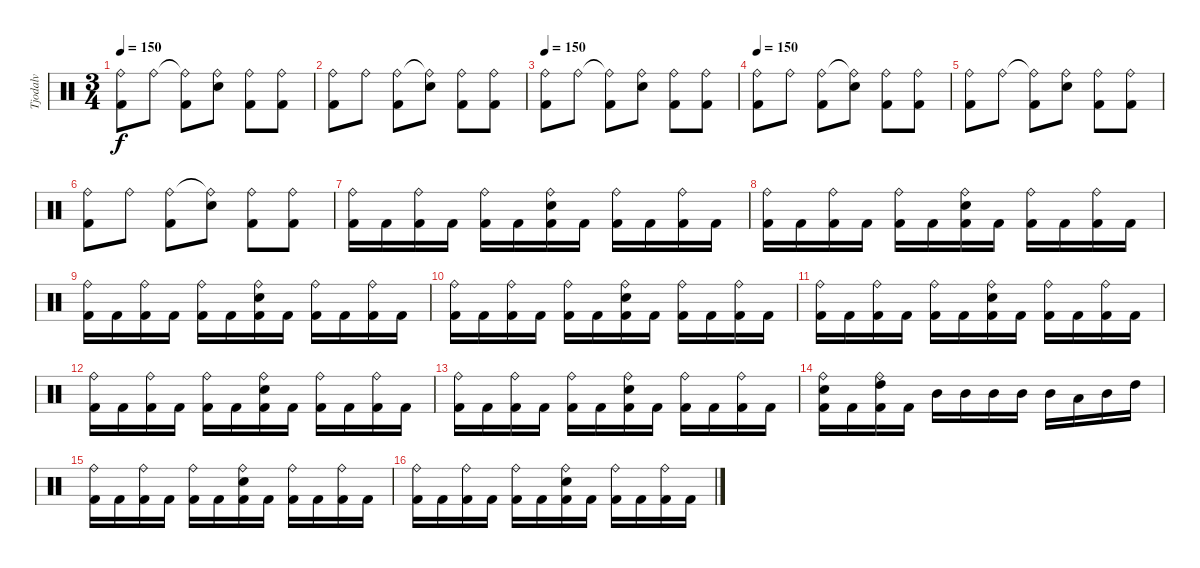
\track ("Tjodalv" "Tjodalv") {instrument percussion}
\staff {score}
\articulation defaults
\ts (3 4)
\tempo 150
\clef neutral
\ks c
("Ride (bell)" "Kick (hit) 2").8{dy f} "Ride (bell)".8 ("Ride (bell)"{t} "Kick (hit) 2").8 ("Ride (bell)" "Snare (hit) 2").8 ("Ride (bell)" "Kick (hit) 2").8 ("Ride (bell)" "Kick (hit) 2").8 |
("Ride (bell)" "Kick (hit) 2").8 "Ride (bell)".8 ("Ride (bell)" "Kick (hit) 2").8 ("Ride (bell)"{t} "Snare (hit) 2").8 ("Ride (bell)" "Kick (hit) 2").8 ("Ride (bell)" "Kick (hit) 2").8 |
\tempo 150
("Ride (bell)" "Kick (hit) 2").8 "Ride (bell)".8 ("Ride (bell)"{t} "Kick (hit) 2").8 ("Ride (bell)" "Snare (hit) 2").8 ("Ride (bell)" "Kick (hit) 2").8 ("Ride (bell)" "Kick (hit) 2").8 |
\tempo 150
("Ride (bell)" "Kick (hit) 2").8 "Ride (bell)".8 ("Ride (bell)" "Kick (hit) 2").8 ("Ride (bell)"{t} "Snare (hit) 2").8 ("Ride (bell)" "Kick (hit) 2").8 ("Ride (bell)" "Kick (hit) 2").8 |
("Ride (bell)" "Kick (hit) 2").8 "Ride (bell)".8 ("Ride (bell)"{t} "Kick (hit) 2").8 ("Ride (bell)" "Snare (hit) 2").8 ("Ride (bell)" "Kick (hit) 2").8 ("Ride (bell)" "Kick (hit) 2").8 |
("Ride (bell)" "Kick (hit) 2").8 "Ride (bell)".8 ("Ride (bell)" "Kick (hit) 2").8 ("Ride (bell)"{t} "Snare (hit) 2").8 ("Ride (bell)" "Kick (hit) 2").8 ("Ride (bell)" "Kick (hit) 2").8 |
("Ride (bell)" "Kick (hit) 2").16 "Kick (hit) 2".16 ("Ride (bell)" "Kick (hit) 2").16 "Kick (hit) 2".16 ("Ride (bell)" "Kick (hit) 2").16 "Kick (hit) 2".16 ("Ride (bell)" "Snare (hit) 2" "Kick (hit) 2").16 "Kick (hit) 2".16 ("Ride (bell)" "Kick (hit) 2").16 "Kick (hit) 2".16 ("Ride (bell)" "Kick (hit) 2").16 "Kick (hit) 2".16 |
("Ride (bell)" "Kick (hit) 2").16 "Kick (hit) 2".16 ("Ride (bell)" "Kick (hit) 2").16 "Kick (hit) 2".16 ("Ride (bell)" "Kick (hit) 2").16 "Kick (hit) 2".16 ("Ride (bell)" "Snare (hit) 2" "Kick (hit) 2").16 "Kick (hit) 2".16 ("Ride (bell)" "Kick (hit) 2").16 "Kick (hit) 2".16 ("Ride (bell)" "Kick (hit) 2").16 "Kick (hit) 2".16 |
("Ride (bell)" "Kick (hit) 2").16 "Kick (hit) 2".16 ("Ride (bell)" "Kick (hit) 2").16 "Kick (hit) 2".16 ("Ride (bell)" "Kick (hit) 2").16 "Kick (hit) 2".16 ("Ride (bell)" "Snare (hit) 2" "Kick (hit) 2").16 "Kick (hit) 2".16 ("Ride (bell)" "Kick (hit) 2").16 "Kick (hit) 2".16 ("Ride (bell)" "Kick (hit) 2").16 "Kick (hit) 2".16 |
("Ride (bell)" "Kick (hit) 2").16 "Kick (hit) 2".16 ("Ride (bell)" "Kick (hit) 2").16 "Kick (hit) 2".16 ("Ride (bell)" "Kick (hit) 2").16 "Kick (hit) 2".16 ("Ride (bell)" "Snare (hit) 2" "Kick (hit) 2").16 "Kick (hit) 2".16 ("Ride (bell)" "Kick (hit) 2").16 "Kick (hit) 2".16 ("Ride (bell)" "Kick (hit) 2").16 "Kick (hit) 2".16 |
("Ride (bell)" "Kick (hit) 2").16 "Kick (hit) 2".16 ("Ride (bell)" "Kick (hit) 2").16 "Kick (hit) 2".16 ("Ride (bell)" "Kick (hit) 2").16 "Kick (hit) 2".16 ("Ride (bell)" "Snare (hit) 2" "Kick (hit) 2").16 "Kick (hit) 2".16 ("Ride (bell)" "Kick (hit) 2").16 "Kick (hit) 2".16 ("Ride (bell)" "Kick (hit) 2").16 "Kick (hit) 2".16 |
("Ride (bell)" "Kick (hit) 2").16 "Kick (hit) 2".16 ("Ride (bell)" "Kick (hit) 2").16 "Kick (hit) 2".16 ("Ride (bell)" "Kick (hit) 2").16 "Kick (hit) 2".16 ("Ride (bell)" "Snare (hit) 2" "Kick (hit) 2").16 "Kick (hit) 2".16 ("Ride (bell)" "Kick (hit) 2").16 "Kick (hit) 2".16 ("Ride (bell)" "Kick (hit) 2").16 "Kick (hit) 2".16 |
("Ride (bell)" "Kick (hit) 2").16 "Kick (hit) 2".16 ("Ride (bell)" "Kick (hit) 2").16 "Kick (hit) 2".16 ("Ride (bell)" "Kick (hit) 2").16 "Kick (hit) 2".16 ("Ride (bell)" "Snare (hit) 2" "Kick (hit) 2").16 "Kick (hit) 2".16 ("Ride (bell)" "Kick (hit) 2").16 "Kick (hit) 2".16 ("Ride (bell)" "Kick (hit) 2").16 "Kick (hit) 2".16 |
("Ride (bell)" "Snare (hit) 2" "Kick (hit) 2").16 "Kick (hit) 2".16 ("Ride (bell)" "High Tom (hit)" "Kick (hit) 2").16 "Kick (hit) 2".16 "Mid Tom (hit)".16 "Mid Tom (hit)".16 "Mid Tom (hit)".16 "Mid Tom (hit)".16 "Mid Tom (hit)".16 "Low Tom (hit)".16 "Mid Tom (hit)".16 "High Tom (hit)".16 |
("Ride (bell)" "Kick (hit) 2").16 "Kick (hit) 2".16 ("Ride (bell)" "Kick (hit) 2").16 "Kick (hit) 2".16 ("Ride (bell)" "Kick (hit) 2").16 "Kick (hit) 2".16 ("Ride (bell)" "Snare (hit) 2" "Kick (hit) 2").16 "Kick (hit) 2".16 ("Ride (bell)" "Kick (hit) 2").16 "Kick (hit) 2".16 ("Ride (bell)" "Kick (hit) 2").16 "Kick (hit) 2".16 |
("Ride (bell)" "Kick (hit) 2").16 "Kick (hit) 2".16 ("Ride (bell)" "Kick (hit) 2").16 "Kick (hit) 2".16 ("Ride (bell)" "Kick (hit) 2").16 "Kick (hit) 2".16 ("Ride (bell)" "Snare (hit) 2" "Kick (hit) 2").16 "Kick (hit) 2".16 ("Ride (bell)" "Kick (hit) 2").16 "Kick (hit) 2".16 ("Ride (bell)" "Kick (hit) 2").16 "Kick (hit) 2".16
